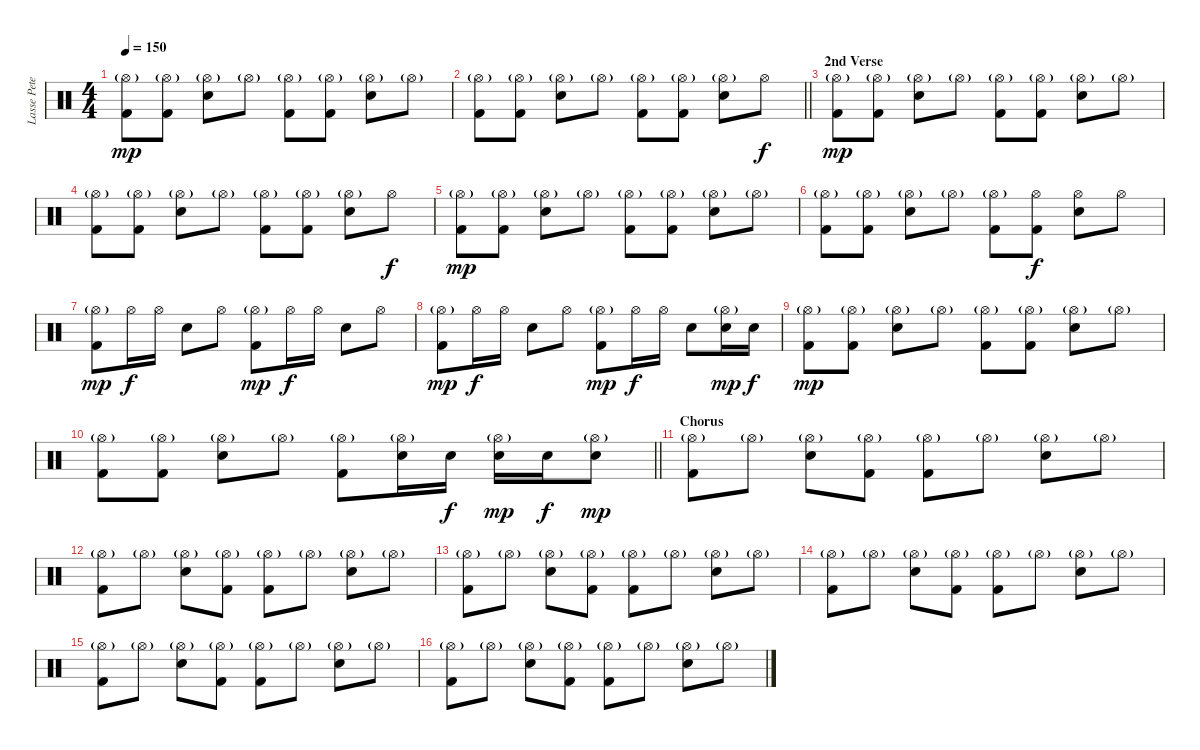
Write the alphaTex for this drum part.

\track ("Lasse Peterson" "Lasse Pete") {instrument percussion}
\staff {score}
\articulation defaults
\ts (4 4)
\tempo 150
\clef neutral
\ks c
("Kick (hit) 2" "Hi-Hat (open)"{g}).8{dy mp} ("Kick (hit) 2" "Hi-Hat (open)"{g}).8 ("Electric Snare (hit)" "Hi-Hat (open)"{g}).8 "Hi-Hat (open)"{g}.8 ("Kick (hit) 2" "Hi-Hat (open)"{g}).8 ("Kick (hit) 2" "Hi-Hat (open)"{g}).8 ("Electric Snare (hit)" "Hi-Hat (open)"{g}).8 "Hi-Hat (open)"{g}.8 |
\barLineRight lightlight
("Kick (hit) 2" "Hi-Hat (open)"{g}).8 ("Kick (hit) 2" "Hi-Hat (open)"{g}).8 ("Electric Snare (hit)" "Hi-Hat (open)"{g}).8 "Hi-Hat (open)"{g}.8 ("Kick (hit) 2" "Hi-Hat (open)"{g}).8 ("Kick (hit) 2" "Hi-Hat (open)"{g}).8 ("Electric Snare (hit)" "Hi-Hat (open)"{g}).8 "Hi-Hat (open)".8{dy f} |
\section ("" "2nd Verse")
("Kick (hit) 2" "Hi-Hat (open)"{g}).8{dy mp} ("Kick (hit) 2" "Hi-Hat (open)"{g}).8 ("Electric Snare (hit)" "Hi-Hat (open)"{g}).8 "Hi-Hat (open)"{g}.8 ("Kick (hit) 2" "Hi-Hat (open)"{g}).8 ("Kick (hit) 2" "Hi-Hat (open)"{g}).8 ("Electric Snare (hit)" "Hi-Hat (open)"{g}).8 "Hi-Hat (open)"{g}.8 |
("Kick (hit) 2" "Hi-Hat (open)"{g}).8 ("Kick (hit) 2" "Hi-Hat (open)"{g}).8 ("Electric Snare (hit)" "Hi-Hat (open)"{g}).8 "Hi-Hat (open)"{g}.8 ("Kick (hit) 2" "Hi-Hat (open)"{g}).8 ("Kick (hit) 2" "Hi-Hat (open)"{g}).8 ("Electric Snare (hit)" "Hi-Hat (open)"{g}).8 "Hi-Hat (open)".8{dy f} |
("Kick (hit) 2" "Hi-Hat (open)"{g}).8{dy mp} ("Kick (hit) 2" "Hi-Hat (open)"{g}).8 ("Electric Snare (hit)" "Hi-Hat (open)"{g}).8 "Hi-Hat (open)"{g}.8 ("Kick (hit) 2" "Hi-Hat (open)"{g}).8 ("Kick (hit) 2" "Hi-Hat (open)"{g}).8 ("Electric Snare (hit)" "Hi-Hat (open)"{g}).8 "Hi-Hat (open)"{g}.8 |
("Kick (hit) 2" "Hi-Hat (open)"{g}).8 ("Kick (hit) 2" "Hi-Hat (open)"{g}).8 ("Electric Snare (hit)" "Hi-Hat (open)"{g}).8 "Hi-Hat (open)"{g}.8 ("Kick (hit) 2" "Hi-Hat (open)"{g}).8 ("Kick (hit) 2" "Hi-Hat (open)").8{dy f} ("Electric Snare (hit)" "Hi-Hat (open)").8 "Hi-Hat (open)".8 |
("Kick (hit) 2" "Hi-Hat (open)"{g}).8{dy mp} "Hi-Hat (open)".16{dy f} "Hi-Hat (open)".16 "Electric Snare (hit)".8 "Hi-Hat (open)".8 ("Kick (hit) 2" "Hi-Hat (open)"{g}).8{dy mp} "Hi-Hat (open)".16{dy f} "Hi-Hat (open)".16 "Electric Snare (hit)".8 "Hi-Hat (open)".8 |
("Kick (hit) 2" "Hi-Hat (open)"{g}).8{dy mp} "Hi-Hat (open)".16{dy f} "Hi-Hat (open)".16 "Electric Snare (hit)".8 "Hi-Hat (open)".8 ("Kick (hit) 2" "Hi-Hat (open)"{g}).8{dy mp} "Hi-Hat (open)".16{dy f} "Hi-Hat (open)".16 "Electric Snare (hit)".8 ("Electric Snare (hit)" "Hi-Hat (open)"{g}).16{dy mp} "Electric Snare (hit)".16{dy f} |
("Kick (hit) 2" "Hi-Hat (open)"{g}).8{dy mp} ("Kick (hit) 2" "Hi-Hat (open)"{g}).8 ("Electric Snare (hit)" "Hi-Hat (open)"{g}).8 "Hi-Hat (open)"{g}.8 ("Kick (hit) 2" "Hi-Hat (open)"{g}).8 ("Kick (hit) 2" "Hi-Hat (open)"{g}).8 ("Electric Snare (hit)" "Hi-Hat (open)"{g}).8 "Hi-Hat (open)"{g}.8 |
\barLineRight lightlight
("Kick (hit) 2" "Hi-Hat (open)"{g}).8 ("Kick (hit) 2" "Hi-Hat (open)"{g}).8 ("Electric Snare (hit)" "Hi-Hat (open)"{g}).8 "Hi-Hat (open)"{g}.8 ("Kick (hit) 2" "Hi-Hat (open)"{g}).8 ("Electric Snare (hit)" "Hi-Hat (open)"{g}).16 "Electric Snare (hit)".16{dy f} ("Electric Snare (hit)" "Hi-Hat (open)"{g}).16{dy mp} "Electric Snare (hit)".16{dy f} ("Electric Snare (hit)" "Hi-Hat (open)"{g}).8{dy mp} |
\section ("" "Chorus")
("Kick (hit) 2" "Hi-Hat (open)"{g}).8 "Hi-Hat (open)"{g}.8 ("Electric Snare (hit)" "Hi-Hat (open)"{g}).8 ("Kick (hit) 2" "Hi-Hat (open)"{g}).8 ("Kick (hit) 2" "Hi-Hat (open)"{g}).8 "Hi-Hat (open)"{g}.8 ("Electric Snare (hit)" "Hi-Hat (open)"{g}).8 "Hi-Hat (open)"{g}.8 |
("Kick (hit) 2" "Hi-Hat (open)"{g}).8 "Hi-Hat (open)"{g}.8 ("Electric Snare (hit)" "Hi-Hat (open)"{g}).8 ("Kick (hit) 2" "Hi-Hat (open)"{g}).8 ("Kick (hit) 2" "Hi-Hat (open)"{g}).8 "Hi-Hat (open)"{g}.8 ("Electric Snare (hit)" "Hi-Hat (open)"{g}).8 "Hi-Hat (open)"{g}.8 |
("Kick (hit) 2" "Hi-Hat (open)"{g}).8 "Hi-Hat (open)"{g}.8 ("Electric Snare (hit)" "Hi-Hat (open)"{g}).8 ("Kick (hit) 2" "Hi-Hat (open)"{g}).8 ("Kick (hit) 2" "Hi-Hat (open)"{g}).8 "Hi-Hat (open)"{g}.8 ("Electric Snare (hit)" "Hi-Hat (open)"{g}).8 "Hi-Hat (open)"{g}.8 |
("Kick (hit) 2" "Hi-Hat (open)"{g}).8 "Hi-Hat (open)"{g}.8 ("Electric Snare (hit)" "Hi-Hat (open)"{g}).8 ("Kick (hit) 2" "Hi-Hat (open)"{g}).8 ("Kick (hit) 2" "Hi-Hat (open)"{g}).8 "Hi-Hat (open)"{g}.8 ("Electric Snare (hit)" "Hi-Hat (open)"{g}).8 "Hi-Hat (open)"{g}.8 |
("Kick (hit) 2" "Hi-Hat (open)"{g}).8 "Hi-Hat (open)"{g}.8 ("Electric Snare (hit)" "Hi-Hat (open)"{g}).8 ("Kick (hit) 2" "Hi-Hat (open)"{g}).8 ("Kick (hit) 2" "Hi-Hat (open)"{g}).8 "Hi-Hat (open)"{g}.8 ("Electric Snare (hit)" "Hi-Hat (open)"{g}).8 "Hi-Hat (open)"{g}.8 |
("Kick (hit) 2" "Hi-Hat (open)"{g}).8 "Hi-Hat (open)"{g}.8 ("Electric Snare (hit)" "Hi-Hat (open)"{g}).8 ("Kick (hit) 2" "Hi-Hat (open)"{g}).8 ("Kick (hit) 2" "Hi-Hat (open)"{g}).8 "Hi-Hat (open)"{g}.8 ("Electric Snare (hit)" "Hi-Hat (open)"{g}).8 "Hi-Hat (open)"{g}.8
